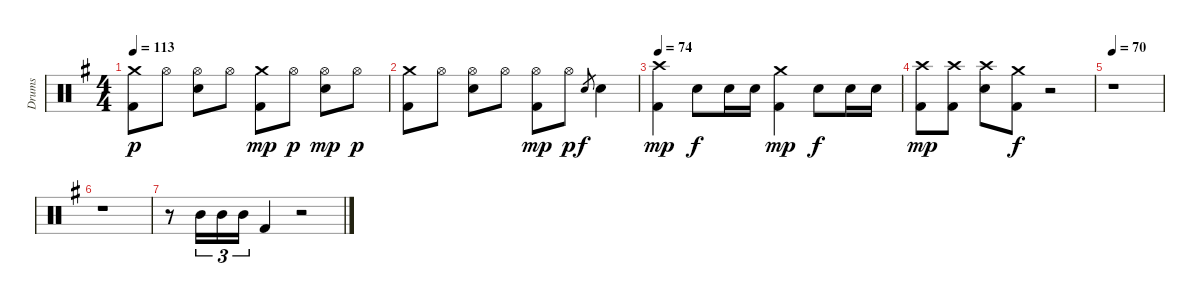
\track ("Drums" "Drums") {instrument percussion}
\staff {score}
\articulation defaults
\ts (4 4)
\tempo 113
\clef neutral
\ks g
("Crash medium (hit)" "Kick (hit) 2").8{dy p} "Hi-Hat (open)".8 ("Hi-Hat (open)" "Electric Snare (hit)").8 "Hi-Hat (open)".8 ("Crash medium (hit)" "Kick (hit) 2").8{dy mp} "Hi-Hat (open)".8{dy p} ("Hi-Hat (open)" "Electric Snare (hit)").8{dy mp} "Hi-Hat (open)".8{dy p} |
("Crash medium (hit)" "Kick (hit) 2").8 "Hi-Hat (open)".8 ("Hi-Hat (open)" "Electric Snare (hit)").8 "Hi-Hat (open)".8 ("Hi-Hat (open)" "Kick (hit) 2").8{dy mp} "Hi-Hat (open)".8{dy p} "Electric Snare (hit)".8{gr dy f} "Electric Snare (hit)".4 |
\tempo 74
("Kick (hit) 2" "Crash high (hit)").4{dy mp} "Electric Snare (hit)".8{dy f} "Electric Snare (hit)".16 "Electric Snare (hit)".16 ("Kick (hit) 2" "Crash medium (hit)").4{dy mp} "Electric Snare (hit)".8{dy f} "Electric Snare (hit)".16 "Electric Snare (hit)".16 |
("Kick (hit) 2" "Crash high (hit)").8{dy mp} ("Kick (hit) 2" "Crash high (hit)").8 ("Electric Snare (hit)" "Crash high (hit)").8 ("Kick (hit) 2" "Crash medium (hit)").8{dy f} r.2 |
\tempo 70
r.1 |
r.1 |
r.8 "Mid Tom (hit)".16{tu (3 2)} "Mid Tom (hit)".16{tu (3 2)} "Mid Tom (hit)".16{tu (3 2)} "Kick (hit) 2".4 r.2
